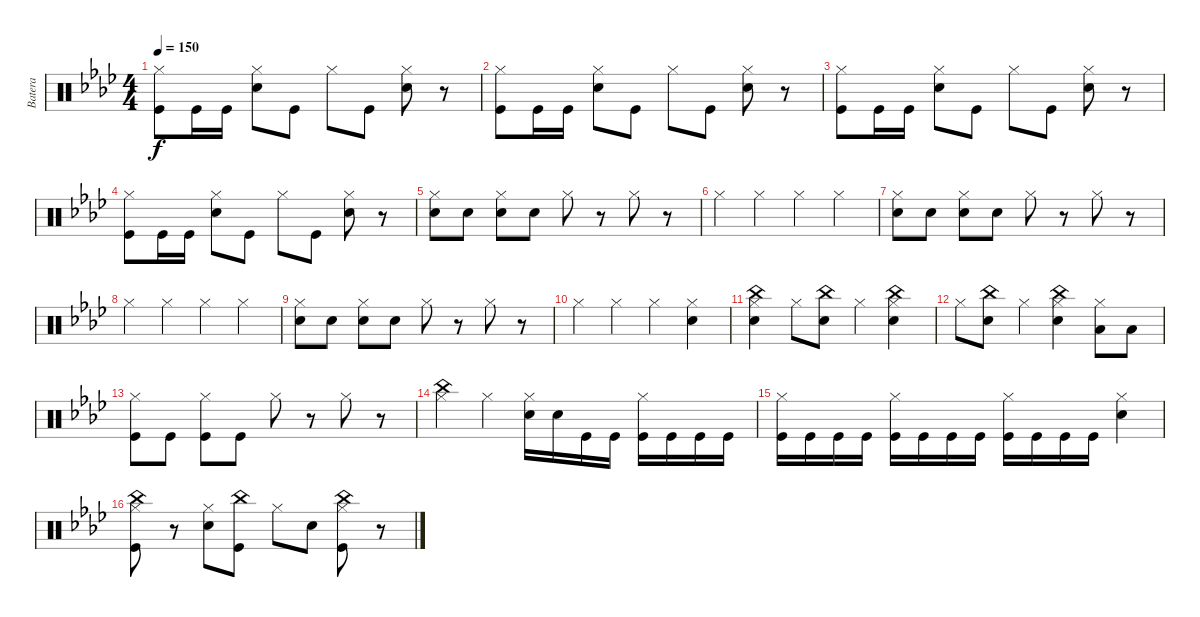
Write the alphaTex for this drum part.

\track ("Batera" "Batera") {instrument percussion}
\staff {score}
\articulation defaults
\ts (4 4)
\tempo 150
\clef neutral
\ks fminor
("Hi-Hat (closed)" "Kick (hit)").8{dy f} "Kick (hit)".16 "Kick (hit)".16 ("Hi-Hat (closed)" "Snare (hit) 2").8 "Kick (hit)".8 "Hi-Hat (closed)".8 "Kick (hit)".8 ("Hi-Hat (closed)" "Snare (hit) 2").8 r.8 |
("Hi-Hat (closed)" "Kick (hit)").8 "Kick (hit)".16 "Kick (hit)".16 ("Hi-Hat (closed)" "Snare (hit) 2").8 "Kick (hit)".8 "Hi-Hat (closed)".8 "Kick (hit)".8 ("Hi-Hat (closed)" "Snare (hit) 2").8 r.8 |
("Hi-Hat (closed)" "Kick (hit)").8 "Kick (hit)".16 "Kick (hit)".16 ("Hi-Hat (closed)" "Snare (hit) 2").8 "Kick (hit)".8 "Hi-Hat (closed)".8 "Kick (hit)".8 ("Hi-Hat (closed)" "Snare (hit) 2").8 r.8 |
("Hi-Hat (closed)" "Kick (hit)").8 "Kick (hit)".16 "Kick (hit)".16 ("Hi-Hat (closed)" "Snare (hit) 2").8 "Kick (hit)".8 "Hi-Hat (closed)".8 "Kick (hit)".8 ("Hi-Hat (closed)" "Snare (hit) 2").8 r.8 |
("Hi-Hat (closed)" "Snare (hit) 2").8 "Snare (hit) 2".8 ("Hi-Hat (closed)" "Snare (hit) 2").8 "Snare (hit) 2".8 "Hi-Hat (closed)".8 r.8 "Hi-Hat (closed)".8 r.8 |
"Hi-Hat (closed)".4 "Hi-Hat (closed)".4 "Hi-Hat (closed)".4 "Hi-Hat (closed)".4 |
("Hi-Hat (closed)" "Snare (hit) 2").8 "Snare (hit) 2".8 ("Hi-Hat (closed)" "Snare (hit) 2").8 "Snare (hit) 2".8 "Hi-Hat (closed)".8 r.8 "Hi-Hat (closed)".8 r.8 |
"Hi-Hat (closed)".4 "Hi-Hat (closed)".4 "Hi-Hat (closed)".4 "Hi-Hat (closed)".4 |
("Hi-Hat (closed)" "Snare (hit) 2").8 "Snare (hit) 2".8 ("Hi-Hat (closed)" "Snare (hit) 2").8 "Snare (hit) 2".8 "Hi-Hat (closed)".8 r.8 "Hi-Hat (closed)".8 r.8 |
"Hi-Hat (closed)".4 "Hi-Hat (closed)".4 "Hi-Hat (closed)".4 ("Hi-Hat (closed)" "Snare (hit) 2").4 |
("Hi-Hat (closed)" "Snare (hit) 2" "China (hit)").4 "Hi-Hat (closed)".8 ("Snare (hit) 2" "China (hit)").8 "Hi-Hat (closed)".4 ("Hi-Hat (closed)" "Snare (hit) 2" "China (hit)").4 |
"Hi-Hat (closed)".8 ("Snare (hit) 2" "China (hit)").8 "Hi-Hat (closed)".4 ("Hi-Hat (closed)" "Snare (hit) 2" "China (hit)").4 ("Hi-Hat (closed)" "Low Floor Tom (hit)").8 "Low Floor Tom (hit)".8 |
("Hi-Hat (closed)" "Kick (hit)").8 "Kick (hit)".8 ("Hi-Hat (closed)" "Kick (hit)").8 "Kick (hit)".8 "Hi-Hat (closed)".8 r.8 "Hi-Hat (closed)".8 r.8 |
("Hi-Hat (closed)" "China (hit)").4 "Hi-Hat (closed)".4 ("Hi-Hat (closed)" "Snare (hit) 2").16 "Snare (hit) 2".16 "Kick (hit)".16 "Kick (hit)".16 ("Hi-Hat (closed)" "Kick (hit)").16 "Kick (hit)".16 "Kick (hit)".16 "Kick (hit)".16 |
("Hi-Hat (closed)" "Kick (hit)").16 "Kick (hit)".16 "Kick (hit)".16 "Kick (hit)".16 ("Hi-Hat (closed)" "Kick (hit)").16 "Kick (hit)".16 "Kick (hit)".16 "Kick (hit)".16 ("Hi-Hat (closed)" "Kick (hit)").16 "Kick (hit)".16 "Kick (hit)".16 "Kick (hit)".16 ("Hi-Hat (closed)" "Snare (hit) 2").4 |
("Hi-Hat (closed)" "Kick (hit)" "China (hit)").8 r.8 ("Hi-Hat (closed)" "Snare (hit) 2").8 ("Kick (hit)" "China (hit)").8 "Hi-Hat (closed)".8 "Snare (hit) 2".8 ("Hi-Hat (closed)" "Kick (hit)" "China (hit)").8 r.8
